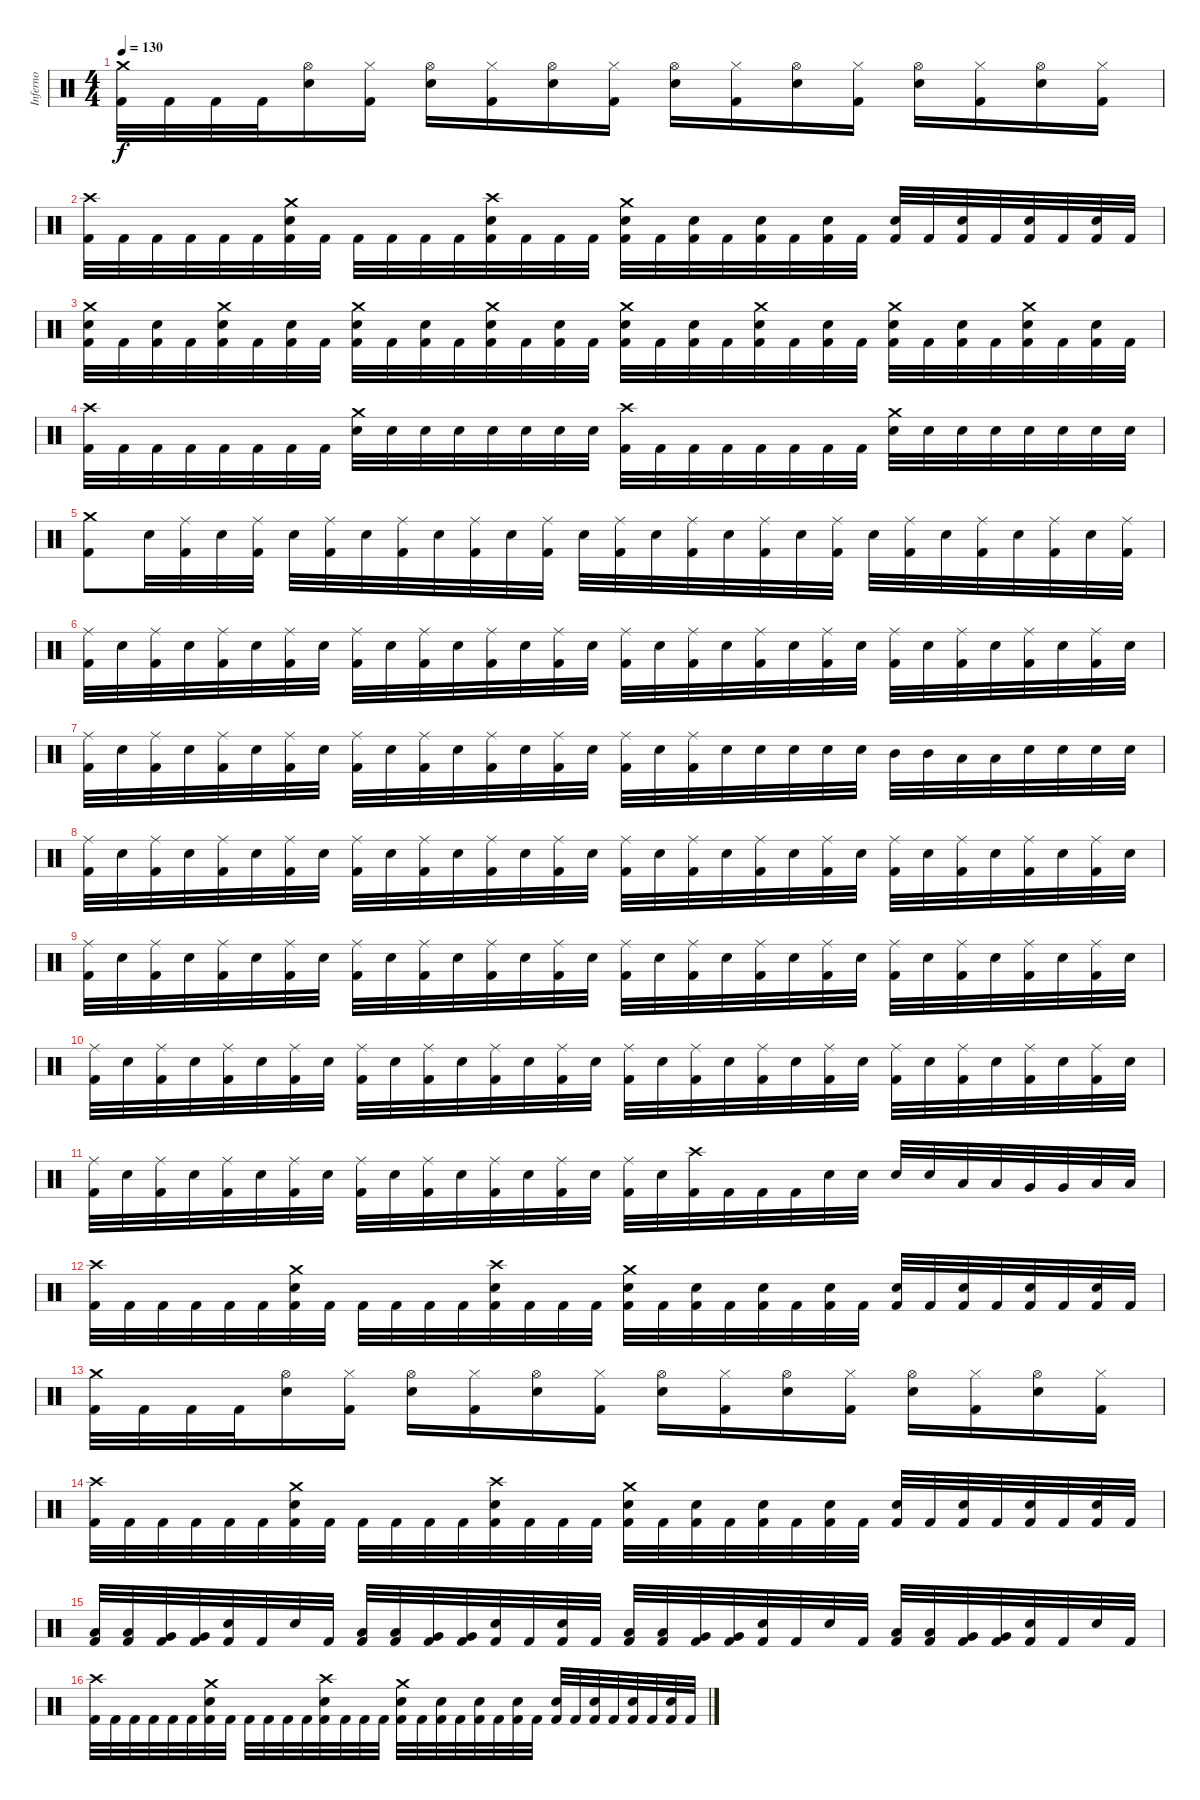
\track ("Inferno" "Inferno") {instrument percussion}
\staff {score}
\articulation defaults
\ts (4 4)
\tempo 130
\clef neutral
\ks c
("Crash medium (hit)" "Kick (hit) 2").32{dy f} "Kick (hit) 2".32 "Kick (hit) 2".32 "Kick (hit) 2".32 ("Hi-Hat (open)" "Snare (hit) 2").16 ("Hi-Hat (closed)" "Kick (hit) 2").16 ("Hi-Hat (open)" "Snare (hit) 2").16 ("Hi-Hat (closed)" "Kick (hit) 2").16 ("Hi-Hat (open)" "Snare (hit) 2").16 ("Hi-Hat (closed)" "Kick (hit) 2").16 ("Hi-Hat (open)" "Snare (hit) 2").16 ("Hi-Hat (closed)" "Kick (hit) 2").16 ("Hi-Hat (open)" "Snare (hit) 2").16 ("Hi-Hat (closed)" "Kick (hit) 2").16 ("Hi-Hat (open)" "Snare (hit) 2").16 ("Hi-Hat (closed)" "Kick (hit) 2").16 ("Hi-Hat (open)" "Snare (hit) 2").16 ("Hi-Hat (closed)" "Kick (hit) 2").16 |
("Crash high (hit)" "Kick (hit) 2").32 "Kick (hit) 2".32 "Kick (hit) 2".32 "Kick (hit) 2".32 "Kick (hit) 2".32 "Kick (hit) 2".32 ("Crash medium (hit)" "Snare (hit) 2" "Kick (hit) 2").32 "Kick (hit) 2".32 "Kick (hit) 2".32 "Kick (hit) 2".32 "Kick (hit) 2".32 "Kick (hit) 2".32 ("Crash high (hit)" "Snare (hit) 2" "Kick (hit) 2").32 "Kick (hit) 2".32 "Kick (hit) 2".32 "Kick (hit) 2".32 ("Crash medium (hit)" "Snare (hit) 2" "Kick (hit) 2").32 "Kick (hit) 2".32 ("Snare (hit) 2" "Kick (hit) 2").32 "Kick (hit) 2".32 ("Snare (hit) 2" "Kick (hit) 2").32 "Kick (hit) 2".32 ("Snare (hit) 2" "Kick (hit) 2").32 "Kick (hit) 2".32 ("Snare (hit) 2" "Kick (hit) 2").32 "Kick (hit) 2".32 ("Snare (hit) 2" "Kick (hit) 2").32 "Kick (hit) 2".32 ("Snare (hit) 2" "Kick (hit) 2").32 "Kick (hit) 2".32 ("Snare (hit) 2" "Kick (hit) 2").32 "Kick (hit) 2".32 |
("Crash medium (hit)" "Snare (hit) 2" "Kick (hit) 2").32 "Kick (hit) 2".32 ("Snare (hit) 2" "Kick (hit) 2").32 "Kick (hit) 2".32 ("Crash medium (hit)" "Snare (hit) 2" "Kick (hit) 2").32 "Kick (hit) 2".32 ("Snare (hit) 2" "Kick (hit) 2").32 "Kick (hit) 2".32 ("Crash medium (hit)" "Snare (hit) 2" "Kick (hit) 2").32 "Kick (hit) 2".32 ("Snare (hit) 2" "Kick (hit) 2").32 "Kick (hit) 2".32 ("Crash medium (hit)" "Snare (hit) 2" "Kick (hit) 2").32 "Kick (hit) 2".32 ("Snare (hit) 2" "Kick (hit) 2").32 "Kick (hit) 2".32 ("Crash medium (hit)" "Snare (hit) 2" "Kick (hit) 2").32 "Kick (hit) 2".32 ("Snare (hit) 2" "Kick (hit) 2").32 "Kick (hit) 2".32 ("Crash medium (hit)" "Snare (hit) 2" "Kick (hit) 2").32 "Kick (hit) 2".32 ("Snare (hit) 2" "Kick (hit) 2").32 "Kick (hit) 2".32 ("Crash medium (hit)" "Snare (hit) 2" "Kick (hit) 2").32 "Kick (hit) 2".32 ("Snare (hit) 2" "Kick (hit) 2").32 "Kick (hit) 2".32 ("Crash medium (hit)" "Snare (hit) 2" "Kick (hit) 2").32 "Kick (hit) 2".32 ("Snare (hit) 2" "Kick (hit) 2").32 "Kick (hit) 2".32 |
("Crash high (hit)" "Kick (hit) 2").32 "Kick (hit) 2".32 "Kick (hit) 2".32 "Kick (hit) 2".32 "Kick (hit) 2".32 "Kick (hit) 2".32 "Kick (hit) 2".32 "Kick (hit) 2".32 ("Crash medium (hit)" "Snare (hit) 2").32 "Snare (hit) 2".32 "Snare (hit) 2".32 "Snare (hit) 2".32 "Snare (hit) 2".32 "Snare (hit) 2".32 "Snare (hit) 2".32 "Snare (hit) 2".32 ("Crash high (hit)" "Kick (hit) 2").32 "Kick (hit) 2".32 "Kick (hit) 2".32 "Kick (hit) 2".32 "Kick (hit) 2".32 "Kick (hit) 2".32 "Kick (hit) 2".32 "Kick (hit) 2".32 ("Crash medium (hit)" "Snare (hit) 2").32 "Snare (hit) 2".32 "Snare (hit) 2".32 "Snare (hit) 2".32 "Snare (hit) 2".32 "Snare (hit) 2".32 "Snare (hit) 2".32 "Snare (hit) 2".32 |
("Crash medium (hit)" "Kick (hit) 2").8 "Snare (hit) 2".32 ("Ride (middle)" "Kick (hit) 2").32 "Snare (hit) 2".32 ("Ride (middle)" "Kick (hit) 2").32 "Snare (hit) 2".32 ("Ride (middle)" "Kick (hit) 2").32 "Snare (hit) 2".32 ("Ride (middle)" "Kick (hit) 2").32 "Snare (hit) 2".32 ("Ride (middle)" "Kick (hit) 2").32 "Snare (hit) 2".32 ("Ride (middle)" "Kick (hit) 2").32 "Snare (hit) 2".32 ("Ride (middle)" "Kick (hit) 2").32 "Snare (hit) 2".32 ("Ride (middle)" "Kick (hit) 2").32 "Snare (hit) 2".32 ("Ride (middle)" "Kick (hit) 2").32 "Snare (hit) 2".32 ("Ride (middle)" "Kick (hit) 2").32 "Snare (hit) 2".32 ("Ride (middle)" "Kick (hit) 2").32 "Snare (hit) 2".32 ("Ride (middle)" "Kick (hit) 2").32 "Snare (hit) 2".32 ("Ride (middle)" "Kick (hit) 2").32 "Snare (hit) 2".32 ("Ride (middle)" "Kick (hit) 2").32 |
("Ride (middle)" "Kick (hit) 2").32 "Snare (hit) 2".32 ("Ride (middle)" "Kick (hit) 2").32 "Snare (hit) 2".32 ("Ride (middle)" "Kick (hit) 2").32 "Snare (hit) 2".32 ("Ride (middle)" "Kick (hit) 2").32 "Snare (hit) 2".32 ("Ride (middle)" "Kick (hit) 2").32 "Snare (hit) 2".32 ("Ride (middle)" "Kick (hit) 2").32 "Snare (hit) 2".32 ("Ride (middle)" "Kick (hit) 2").32 "Snare (hit) 2".32 ("Ride (middle)" "Kick (hit) 2").32 "Snare (hit) 2".32 ("Ride (middle)" "Kick (hit) 2").32 "Snare (hit) 2".32 ("Ride (middle)" "Kick (hit) 2").32 "Snare (hit) 2".32 ("Ride (middle)" "Kick (hit) 2").32 "Snare (hit) 2".32 ("Ride (middle)" "Kick (hit) 2").32 "Snare (hit) 2".32 ("Ride (middle)" "Kick (hit) 2").32 "Snare (hit) 2".32 ("Ride (middle)" "Kick (hit) 2").32 "Snare (hit) 2".32 ("Ride (middle)" "Kick (hit) 2").32 "Snare (hit) 2".32 ("Ride (middle)" "Kick (hit) 2").32 "Snare (hit) 2".32 |
("Ride (middle)" "Kick (hit) 2").32 "Snare (hit) 2".32 ("Ride (middle)" "Kick (hit) 2").32 "Snare (hit) 2".32 ("Ride (middle)" "Kick (hit) 2").32 "Snare (hit) 2".32 ("Ride (middle)" "Kick (hit) 2").32 "Snare (hit) 2".32 ("Ride (middle)" "Kick (hit) 2").32 "Snare (hit) 2".32 ("Ride (middle)" "Kick (hit) 2").32 "Snare (hit) 2".32 ("Ride (middle)" "Kick (hit) 2").32 "Snare (hit) 2".32 ("Ride (middle)" "Kick (hit) 2").32 "Snare (hit) 2".32 ("Ride (middle)" "Kick (hit) 2").32 "Snare (hit) 2".32 ("Ride (middle)" "Kick (hit) 2").32 "Snare (hit) 2".32 "Snare (hit) 2".32 "Snare (hit) 2".32 "Snare (hit) 2".32 "Snare (hit) 2".32 "Mid Tom (hit)".32 "Mid Tom (hit)".32 "Low Tom (hit)".32 "Low Tom (hit)".32 "Snare (hit) 2".32 "Snare (hit) 2".32 "Snare (hit) 2".32 "Snare (hit) 2".32 |
("Ride (middle)" "Kick (hit) 2").32 "Snare (hit) 2".32 ("Ride (middle)" "Kick (hit) 2").32 "Snare (hit) 2".32 ("Ride (middle)" "Kick (hit) 2").32 "Snare (hit) 2".32 ("Ride (middle)" "Kick (hit) 2").32 "Snare (hit) 2".32 ("Ride (middle)" "Kick (hit) 2").32 "Snare (hit) 2".32 ("Ride (middle)" "Kick (hit) 2").32 "Snare (hit) 2".32 ("Ride (middle)" "Kick (hit) 2").32 "Snare (hit) 2".32 ("Ride (middle)" "Kick (hit) 2").32 "Snare (hit) 2".32 ("Ride (middle)" "Kick (hit) 2").32 "Snare (hit) 2".32 ("Ride (middle)" "Kick (hit) 2").32 "Snare (hit) 2".32 ("Ride (middle)" "Kick (hit) 2").32 "Snare (hit) 2".32 ("Ride (middle)" "Kick (hit) 2").32 "Snare (hit) 2".32 ("Ride (middle)" "Kick (hit) 2").32 "Snare (hit) 2".32 ("Ride (middle)" "Kick (hit) 2").32 "Snare (hit) 2".32 ("Ride (middle)" "Kick (hit) 2").32 "Snare (hit) 2".32 ("Ride (middle)" "Kick (hit) 2").32 "Snare (hit) 2".32 |
("Ride (middle)" "Kick (hit) 2").32 "Snare (hit) 2".32 ("Ride (middle)" "Kick (hit) 2").32 "Snare (hit) 2".32 ("Ride (middle)" "Kick (hit) 2").32 "Snare (hit) 2".32 ("Ride (middle)" "Kick (hit) 2").32 "Snare (hit) 2".32 ("Ride (middle)" "Kick (hit) 2").32 "Snare (hit) 2".32 ("Ride (middle)" "Kick (hit) 2").32 "Snare (hit) 2".32 ("Ride (middle)" "Kick (hit) 2").32 "Snare (hit) 2".32 ("Ride (middle)" "Kick (hit) 2").32 "Snare (hit) 2".32 ("Ride (middle)" "Kick (hit) 2").32 "Snare (hit) 2".32 ("Ride (middle)" "Kick (hit) 2").32 "Snare (hit) 2".32 ("Ride (middle)" "Kick (hit) 2").32 "Snare (hit) 2".32 ("Ride (middle)" "Kick (hit) 2").32 "Snare (hit) 2".32 ("Ride (middle)" "Kick (hit) 2").32 "Snare (hit) 2".32 ("Ride (middle)" "Kick (hit) 2").32 "Snare (hit) 2".32 ("Ride (middle)" "Kick (hit) 2").32 "Snare (hit) 2".32 ("Ride (middle)" "Kick (hit) 2").32 "Snare (hit) 2".32 |
("Ride (middle)" "Kick (hit) 2").32 "Snare (hit) 2".32 ("Ride (middle)" "Kick (hit) 2").32 "Snare (hit) 2".32 ("Ride (middle)" "Kick (hit) 2").32 "Snare (hit) 2".32 ("Ride (middle)" "Kick (hit) 2").32 "Snare (hit) 2".32 ("Ride (middle)" "Kick (hit) 2").32 "Snare (hit) 2".32 ("Ride (middle)" "Kick (hit) 2").32 "Snare (hit) 2".32 ("Ride (middle)" "Kick (hit) 2").32 "Snare (hit) 2".32 ("Ride (middle)" "Kick (hit) 2").32 "Snare (hit) 2".32 ("Ride (middle)" "Kick (hit) 2").32 "Snare (hit) 2".32 ("Ride (middle)" "Kick (hit) 2").32 "Snare (hit) 2".32 ("Ride (middle)" "Kick (hit) 2").32 "Snare (hit) 2".32 ("Ride (middle)" "Kick (hit) 2").32 "Snare (hit) 2".32 ("Ride (middle)" "Kick (hit) 2").32 "Snare (hit) 2".32 ("Ride (middle)" "Kick (hit) 2").32 "Snare (hit) 2".32 ("Ride (middle)" "Kick (hit) 2").32 "Snare (hit) 2".32 ("Ride (middle)" "Kick (hit) 2").32 "Snare (hit) 2".32 |
("Ride (middle)" "Kick (hit) 2").32 "Snare (hit) 2".32 ("Ride (middle)" "Kick (hit) 2").32 "Snare (hit) 2".32 ("Ride (middle)" "Kick (hit) 2").32 "Snare (hit) 2".32 ("Ride (middle)" "Kick (hit) 2").32 "Snare (hit) 2".32 ("Ride (middle)" "Kick (hit) 2").32 "Snare (hit) 2".32 ("Ride (middle)" "Kick (hit) 2").32 "Snare (hit) 2".32 ("Ride (middle)" "Kick (hit) 2").32 "Snare (hit) 2".32 ("Ride (middle)" "Kick (hit) 2").32 "Snare (hit) 2".32 ("Ride (middle)" "Kick (hit) 2").32 "Snare (hit) 2".32 ("Crash high (hit)" "Kick (hit) 2").32 "Kick (hit) 2".32 "Kick (hit) 2".32 "Kick (hit) 2".32 "Snare (hit) 2".32 "Snare (hit) 2".32 "Snare (hit) 2".32 "Snare (hit) 2".32 "Low Tom (hit)".32 "Low Tom (hit)".32 "Very Low Tom (hit)".32 "Very Low Tom (hit)".32 "Low Floor Tom (hit)".32 "Low Floor Tom (hit)".32 |
("Crash high (hit)" "Kick (hit) 2").32 "Kick (hit) 2".32 "Kick (hit) 2".32 "Kick (hit) 2".32 "Kick (hit) 2".32 "Kick (hit) 2".32 ("Crash medium (hit)" "Snare (hit) 2" "Kick (hit) 2").32 "Kick (hit) 2".32 "Kick (hit) 2".32 "Kick (hit) 2".32 "Kick (hit) 2".32 "Kick (hit) 2".32 ("Crash high (hit)" "Snare (hit) 2" "Kick (hit) 2").32 "Kick (hit) 2".32 "Kick (hit) 2".32 "Kick (hit) 2".32 ("Crash medium (hit)" "Snare (hit) 2" "Kick (hit) 2").32 "Kick (hit) 2".32 ("Snare (hit) 2" "Kick (hit) 2").32 "Kick (hit) 2".32 ("Snare (hit) 2" "Kick (hit) 2").32 "Kick (hit) 2".32 ("Snare (hit) 2" "Kick (hit) 2").32 "Kick (hit) 2".32 ("Snare (hit) 2" "Kick (hit) 2").32 "Kick (hit) 2".32 ("Snare (hit) 2" "Kick (hit) 2").32 "Kick (hit) 2".32 ("Snare (hit) 2" "Kick (hit) 2").32 "Kick (hit) 2".32 ("Snare (hit) 2" "Kick (hit) 2").32 "Kick (hit) 2".32 |
("Crash medium (hit)" "Kick (hit) 2").32 "Kick (hit) 2".32 "Kick (hit) 2".32 "Kick (hit) 2".32 ("Hi-Hat (open)" "Snare (hit) 2").16 ("Hi-Hat (closed)" "Kick (hit) 2").16 ("Hi-Hat (open)" "Snare (hit) 2").16 ("Hi-Hat (closed)" "Kick (hit) 2").16 ("Hi-Hat (open)" "Snare (hit) 2").16 ("Hi-Hat (closed)" "Kick (hit) 2").16 ("Hi-Hat (open)" "Snare (hit) 2").16 ("Hi-Hat (closed)" "Kick (hit) 2").16 ("Hi-Hat (open)" "Snare (hit) 2").16 ("Hi-Hat (closed)" "Kick (hit) 2").16 ("Hi-Hat (open)" "Snare (hit) 2").16 ("Hi-Hat (closed)" "Kick (hit) 2").16 ("Hi-Hat (open)" "Snare (hit) 2").16 ("Hi-Hat (closed)" "Kick (hit) 2").16 |
("Crash high (hit)" "Kick (hit) 2").32 "Kick (hit) 2".32 "Kick (hit) 2".32 "Kick (hit) 2".32 "Kick (hit) 2".32 "Kick (hit) 2".32 ("Crash medium (hit)" "Snare (hit) 2" "Kick (hit) 2").32 "Kick (hit) 2".32 "Kick (hit) 2".32 "Kick (hit) 2".32 "Kick (hit) 2".32 "Kick (hit) 2".32 ("Crash high (hit)" "Snare (hit) 2" "Kick (hit) 2").32 "Kick (hit) 2".32 "Kick (hit) 2".32 "Kick (hit) 2".32 ("Crash medium (hit)" "Snare (hit) 2" "Kick (hit) 2").32 "Kick (hit) 2".32 ("Snare (hit) 2" "Kick (hit) 2").32 "Kick (hit) 2".32 ("Snare (hit) 2" "Kick (hit) 2").32 "Kick (hit) 2".32 ("Snare (hit) 2" "Kick (hit) 2").32 "Kick (hit) 2".32 ("Snare (hit) 2" "Kick (hit) 2").32 "Kick (hit) 2".32 ("Snare (hit) 2" "Kick (hit) 2").32 "Kick (hit) 2".32 ("Snare (hit) 2" "Kick (hit) 2").32 "Kick (hit) 2".32 ("Snare (hit) 2" "Kick (hit) 2").32 "Kick (hit) 2".32 |
("Low Tom (hit)" "Kick (hit) 2").32 ("Low Tom (hit)" "Kick (hit) 2").32 ("Very Low Tom (hit)" "Kick (hit) 2").32 ("Very Low Tom (hit)" "Kick (hit) 2").32 ("Snare (hit) 2" "Kick (hit) 2").32 "Kick (hit) 2".32 "Snare (hit) 2".32 "Kick (hit) 2".32 ("Low Tom (hit)" "Kick (hit) 2").32 ("Low Tom (hit)" "Kick (hit) 2").32 ("Very Low Tom (hit)" "Kick (hit) 2").32 ("Very Low Tom (hit)" "Kick (hit) 2").32 ("Snare (hit) 2" "Kick (hit) 2").32 "Kick (hit) 2".32 ("Snare (hit) 2" "Kick (hit) 2").32 "Kick (hit) 2".32 ("Low Tom (hit)" "Kick (hit) 2").32 ("Low Tom (hit)" "Kick (hit) 2").32 ("Very Low Tom (hit)" "Kick (hit) 2").32 ("Very Low Tom (hit)" "Kick (hit) 2").32 ("Snare (hit) 2" "Kick (hit) 2").32 "Kick (hit) 2".32 "Snare (hit) 2".32 "Kick (hit) 2".32 ("Low Tom (hit)" "Kick (hit) 2").32 ("Low Tom (hit)" "Kick (hit) 2").32 ("Very Low Tom (hit)" "Kick (hit) 2").32 ("Very Low Tom (hit)" "Kick (hit) 2").32 ("Snare (hit) 2" "Kick (hit) 2").32 "Kick (hit) 2".32 "Snare (hit) 2".32 "Kick (hit) 2".32 |
("Crash high (hit)" "Kick (hit) 2").32 "Kick (hit) 2".32 "Kick (hit) 2".32 "Kick (hit) 2".32 "Kick (hit) 2".32 "Kick (hit) 2".32 ("Crash medium (hit)" "Snare (hit) 2" "Kick (hit) 2").32 "Kick (hit) 2".32 "Kick (hit) 2".32 "Kick (hit) 2".32 "Kick (hit) 2".32 "Kick (hit) 2".32 ("Crash high (hit)" "Snare (hit) 2" "Kick (hit) 2").32 "Kick (hit) 2".32 "Kick (hit) 2".32 "Kick (hit) 2".32 ("Crash medium (hit)" "Snare (hit) 2" "Kick (hit) 2").32 "Kick (hit) 2".32 ("Snare (hit) 2" "Kick (hit) 2").32 "Kick (hit) 2".32 ("Snare (hit) 2" "Kick (hit) 2").32 "Kick (hit) 2".32 ("Snare (hit) 2" "Kick (hit) 2").32 "Kick (hit) 2".32 ("Snare (hit) 2" "Kick (hit) 2").32 "Kick (hit) 2".32 ("Snare (hit) 2" "Kick (hit) 2").32 "Kick (hit) 2".32 ("Snare (hit) 2" "Kick (hit) 2").32 "Kick (hit) 2".32 ("Snare (hit) 2" "Kick (hit) 2").32 "Kick (hit) 2".32
